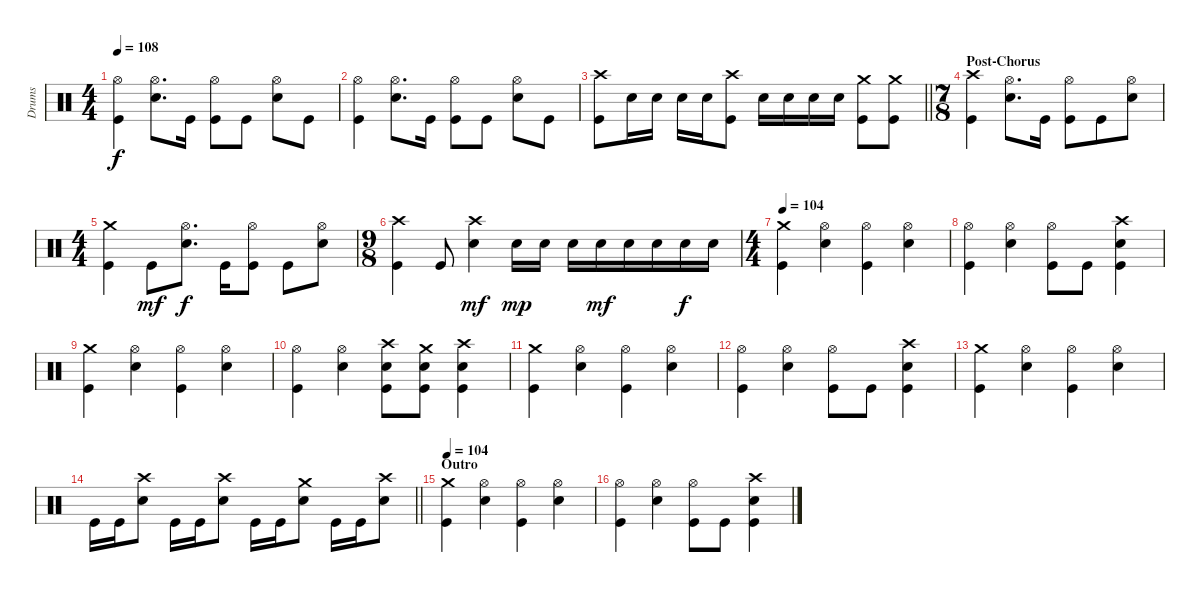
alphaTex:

\track ("Drums" "Drums") {instrument percussion}
\staff {score}
\articulation defaults
\ts (4 4)
\tempo 108
\clef neutral
\ks c
("Hi-Hat (open)" "Kick (hit)").4{dy f} ("Hi-Hat (open)" "Electric Snare (hit)").8{d} "Kick (hit)".16 ("Hi-Hat (open)" "Kick (hit)").8 "Kick (hit)".8 ("Hi-Hat (open)" "Electric Snare (hit)").8 "Kick (hit)".8 |
("Hi-Hat (open)" "Kick (hit)").4 ("Hi-Hat (open)" "Electric Snare (hit)").8{d} "Kick (hit)".16 ("Hi-Hat (open)" "Kick (hit)").8 "Kick (hit)".8 ("Hi-Hat (open)" "Electric Snare (hit)").8 "Kick (hit)".8 |
\barLineRight lightlight
("Crash high (hit)" "Kick (hit)").8 "Electric Snare (hit)".16 "Electric Snare (hit)".16 "Electric Snare (hit)".16 "Electric Snare (hit)".16 ("Crash high (hit)" "Kick (hit)").8 "Electric Snare (hit)".16 "Electric Snare (hit)".16 "Electric Snare (hit)".16 "Electric Snare (hit)".16 ("Crash medium (hit)" "Kick (hit)").8 ("Crash medium (hit)" "Kick (hit)").8 |
\ts (7 8)
\section ("" "Post-Chorus")
("Crash high (hit)" "Kick (hit)").4 ("Hi-Hat (open)" "Electric Snare (hit)").8{d} "Kick (hit)".16 ("Hi-Hat (open)" "Kick (hit)").8 "Kick (hit)".8 ("Hi-Hat (open)" "Electric Snare (hit)").8 |
\ts (4 4)
("Crash medium (hit)" "Kick (hit)").4 "Kick (hit)".8{dy mf} ("Hi-Hat (open)" "Electric Snare (hit)").8{d dy f} "Kick (hit)".16 ("Hi-Hat (open)" "Kick (hit)").8 "Kick (hit)".8 ("Hi-Hat (open)" "Electric Snare (hit)").8 |
\ts (9 8)
("Crash high (hit)" "Kick (hit)").4 "Kick (hit)".8 ("Crash high (hit)" "Electric Snare (hit)").4{dy mf} "Electric Snare (hit)".16{dy mp} "Electric Snare (hit)".16 "Electric Snare (hit)".16 "Electric Snare (hit)".16{dy mf} "Electric Snare (hit)".16 "Electric Snare (hit)".16 "Electric Snare (hit)".16{dy f} "Electric Snare (hit)".16 |
\ts (4 4)
\tempo 104
("Crash medium (hit)" "Kick (hit)").4 ("Hi-Hat (open)" "Electric Snare (hit)").4 ("Hi-Hat (open)" "Kick (hit)").4 ("Hi-Hat (open)" "Electric Snare (hit)").4 |
("Hi-Hat (open)" "Kick (hit)").4 ("Hi-Hat (open)" "Electric Snare (hit)").4 ("Hi-Hat (open)" "Kick (hit)").8 "Kick (hit)".8 ("Crash high (hit)" "Electric Snare (hit)" "Kick (hit)").4 |
("Crash medium (hit)" "Kick (hit)").4 ("Hi-Hat (open)" "Electric Snare (hit)").4 ("Hi-Hat (open)" "Kick (hit)").4 ("Hi-Hat (open)" "Electric Snare (hit)").4 |
("Hi-Hat (open)" "Kick (hit)").4 ("Hi-Hat (open)" "Electric Snare (hit)").4 ("Crash high (hit)" "Electric Snare (hit)" "Kick (hit)").8 ("Crash medium (hit)" "Electric Snare (hit)" "Kick (hit)").8 ("Crash high (hit)" "Electric Snare (hit)" "Kick (hit)").4 |
("Crash medium (hit)" "Kick (hit)").4 ("Hi-Hat (open)" "Electric Snare (hit)").4 ("Hi-Hat (open)" "Kick (hit)").4 ("Hi-Hat (open)" "Electric Snare (hit)").4 |
("Hi-Hat (open)" "Kick (hit)").4 ("Hi-Hat (open)" "Electric Snare (hit)").4 ("Hi-Hat (open)" "Kick (hit)").8 "Kick (hit)".8 ("Crash high (hit)" "Electric Snare (hit)" "Kick (hit)").4 |
("Crash medium (hit)" "Kick (hit)").4 ("Hi-Hat (open)" "Electric Snare (hit)").4 ("Hi-Hat (open)" "Kick (hit)").4 ("Hi-Hat (open)" "Electric Snare (hit)").4 |
\barLineRight lightlight "Kick (hit)".16 "Kick (hit)".16
("Crash high (hit)" "Electric Snare (hit)").8 "Kick (hit)".16 "Kick (hit)".16 ("Crash high (hit)" "Electric Snare (hit)").8 "Kick (hit)".16 "Kick (hit)".16 ("Crash medium (hit)" "Electric Snare (hit)").8 "Kick (hit)".16 "Kick (hit)".16 ("Crash high (hit)" "Electric Snare (hit)").8 |
\section ("" "Outro")
\tempo 104
("Crash medium (hit)" "Kick (hit)").4 ("Hi-Hat (open)" "Electric Snare (hit)").4 ("Hi-Hat (open)" "Kick (hit)").4 ("Hi-Hat (open)" "Electric Snare (hit)").4 |
("Hi-Hat (open)" "Kick (hit)").4 ("Hi-Hat (open)" "Electric Snare (hit)").4 ("Hi-Hat (open)" "Kick (hit)").8 "Kick (hit)".8 ("Crash high (hit)" "Electric Snare (hit)" "Kick (hit)").4
